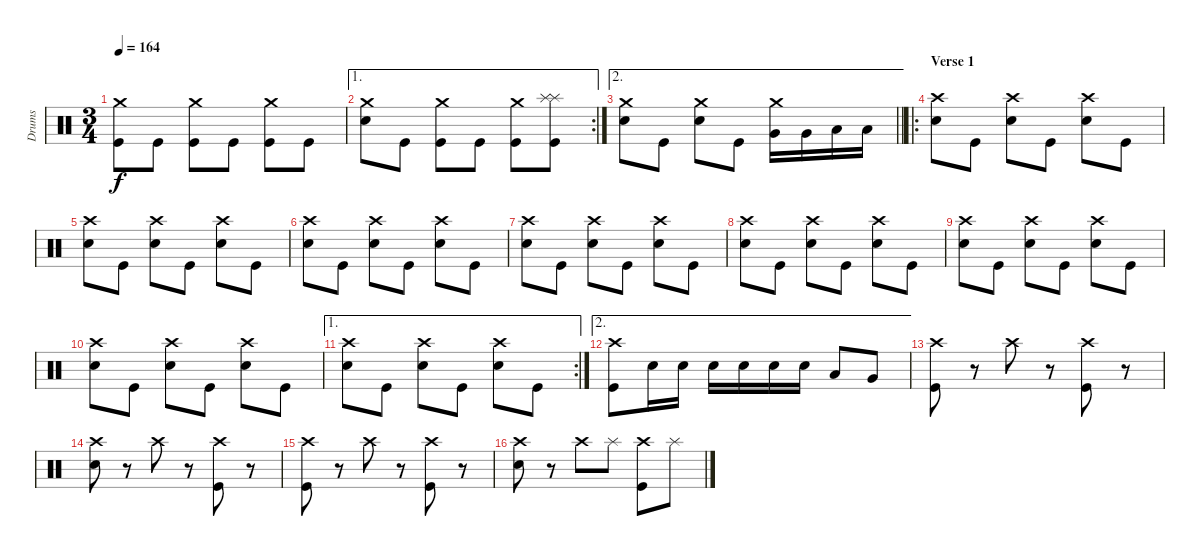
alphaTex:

\track ("Drums" "Drums") {instrument percussion}
\staff {score}
\articulation defaults
\ts (3 4)
\tempo 164
\clef neutral
\ks c
("Crash medium (hit)" "Kick (hit)").8{dy f} "Kick (hit)".8 ("Crash medium (hit)" "Kick (hit)").8 "Kick (hit)".8 ("Crash medium (hit)" "Kick (hit)").8 "Kick (hit)".8 |
\ae 1
\rc 2
("Crash medium (hit)" "Snare (hit) 2").8 "Kick (hit)".8 ("Crash medium (hit)" "Kick (hit)").8 "Kick (hit)".8 ("Crash medium (hit)" "Kick (hit)").8 ("Splash (hit)" "Splash (hit)" "Kick (hit)").8 |
\ae 2
\barLineRight lightlight
("Crash medium (hit)" "Snare (hit) 2").8 "Kick (hit)".8 ("Crash medium (hit)" "Snare (hit) 2").8 "Kick (hit)".8 ("Crash medium (hit)" "Very Low Tom (hit)").16 "Very Low Tom (hit)".16 "Low Floor Tom (hit)".16 "Low Floor Tom (hit)".16 |
\ro
\section ("" "Verse 1")
("Crash high (hit)" "Snare (hit) 2").8 "Kick (hit)".8 ("Crash high (hit)" "Snare (hit) 2").8 "Kick (hit)".8 ("Crash high (hit)" "Snare (hit) 2").8 "Kick (hit)".8 |
("Crash high (hit)" "Snare (hit) 2").8 "Kick (hit)".8 ("Crash high (hit)" "Snare (hit) 2").8 "Kick (hit)".8 ("Crash high (hit)" "Snare (hit) 2").8 "Kick (hit)".8 |
("Crash high (hit)" "Snare (hit) 2").8 "Kick (hit)".8 ("Crash high (hit)" "Snare (hit) 2").8 "Kick (hit)".8 ("Crash high (hit)" "Snare (hit) 2").8 "Kick (hit)".8 |
("Crash high (hit)" "Snare (hit) 2").8 "Kick (hit)".8 ("Crash high (hit)" "Snare (hit) 2").8 "Kick (hit)".8 ("Crash high (hit)" "Snare (hit) 2").8 "Kick (hit)".8 |
("Crash high (hit)" "Snare (hit) 2").8 "Kick (hit)".8 ("Crash high (hit)" "Snare (hit) 2").8 "Kick (hit)".8 ("Crash high (hit)" "Snare (hit) 2").8 "Kick (hit)".8 |
("Crash high (hit)" "Snare (hit) 2").8 "Kick (hit)".8 ("Crash high (hit)" "Snare (hit) 2").8 "Kick (hit)".8 ("Crash high (hit)" "Snare (hit) 2").8 "Kick (hit)".8 |
("Crash high (hit)" "Snare (hit) 2").8 "Kick (hit)".8 ("Crash high (hit)" "Snare (hit) 2").8 "Kick (hit)".8 ("Crash high (hit)" "Snare (hit) 2").8 "Kick (hit)".8 |
\ae 1
\rc 2
("Crash high (hit)" "Snare (hit) 2").8 "Kick (hit)".8 ("Crash high (hit)" "Snare (hit) 2").8 "Kick (hit)".8 ("Crash high (hit)" "Snare (hit) 2").8 "Kick (hit)".8 |
\ae 2
("Crash high (hit)" "Kick (hit)").8 "Snare (hit) 2".16 "Snare (hit) 2".16 "Snare (hit) 2".16 "Snare (hit) 2".16 "Snare (hit) 2".16 "Snare (hit) 2".16 "Low Tom (hit)".8 "Very Low Tom (hit)".8 |
("Crash high (hit)" "Kick (hit)").8 r.8 "Crash high (hit)".8 r.8 ("Crash high (hit)" "Kick (hit)").8 r.8 |
("Crash high (hit)" "Snare (hit) 2").8 r.8 "Crash high (hit)".8 r.8 ("Crash high (hit)" "Kick (hit)").8 r.8 |
("Crash high (hit)" "Kick (hit)").8 r.8 "Crash high (hit)".8 r.8 ("Crash high (hit)" "Kick (hit)").8 r.8 |
("Crash high (hit)" "Snare (hit) 2").8 r.8 "Crash high (hit)".8 "Splash (hit)".8 ("Crash high (hit)" "Kick (hit)").8 "Splash (hit)".8
